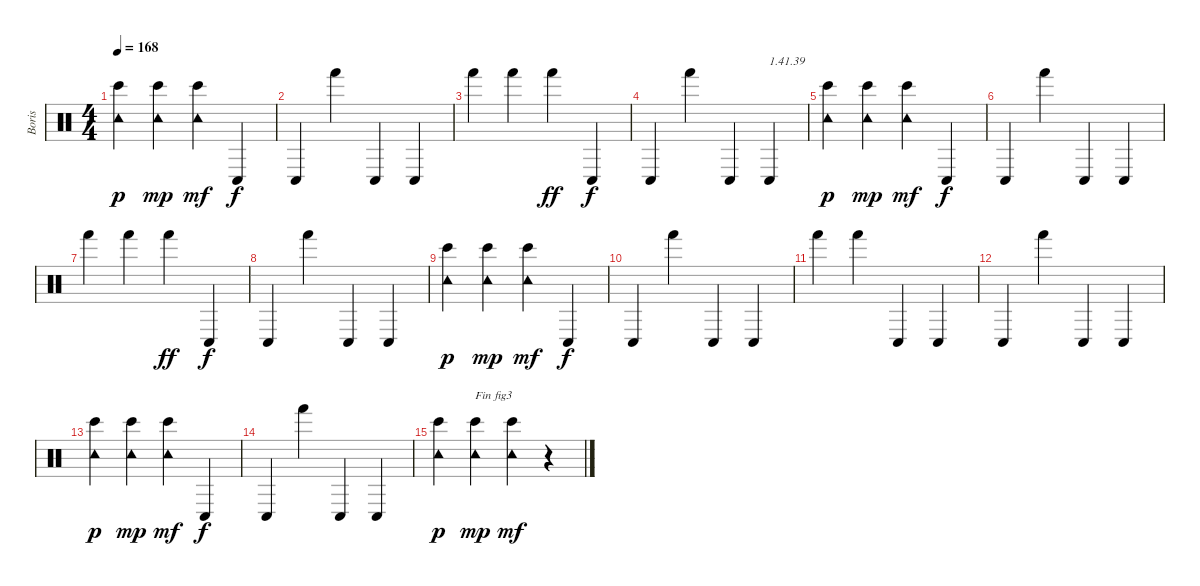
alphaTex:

\track ("Boris" "Boris") {instrument percussion}
\staff {score}
\articulation defaults
\ts (4 4)
\tempo 168
\clef neutral
\ks c
("Tambourine (hit)" "Bongo High (hit)").4{dy p} ("Tambourine (hit)" "Bongo High (hit)").4{dy mp} ("Tambourine (hit)" "Bongo High (hit)").4{dy mf} "Conga low (hit)".4{dy f} |
"Conga low (hit)".4 "Hand (hit)".4 "Conga low (hit)".4 "Conga low (hit)".4 |
"Hand (hit)".4 "Hand (hit)".4 "Hand (hit)".4{dy ff} "Conga low (hit)".4{dy f} |
"Conga low (hit)".4 "Hand (hit)".4 "Conga low (hit)".4 "Conga low (hit)".4{txt "1.41.39"} |
("Tambourine (hit)" "Bongo High (hit)").4{dy p} ("Tambourine (hit)" "Bongo High (hit)").4{dy mp} ("Tambourine (hit)" "Bongo High (hit)").4{dy mf} "Conga low (hit)".4{dy f} |
"Conga low (hit)".4 "Hand (hit)".4 "Conga low (hit)".4 "Conga low (hit)".4 |
"Hand (hit)".4 "Hand (hit)".4 "Hand (hit)".4{dy ff} "Conga low (hit)".4{dy f} |
"Conga low (hit)".4 "Hand (hit)".4 "Conga low (hit)".4 "Conga low (hit)".4 |
("Tambourine (hit)" "Bongo High (hit)").4{dy p} ("Tambourine (hit)" "Bongo High (hit)").4{dy mp} ("Tambourine (hit)" "Bongo High (hit)").4{dy mf} "Conga low (hit)".4{dy f} |
"Conga low (hit)".4 "Hand (hit)".4 "Conga low (hit)".4 "Conga low (hit)".4 |
"Hand (hit)".4 "Hand (hit)".4 "Conga low (hit)".4 "Conga low (hit)".4 |
"Conga low (hit)".4 "Hand (hit)".4 "Conga low (hit)".4 "Conga low (hit)".4 |
("Tambourine (hit)" "Bongo High (hit)").4{dy p} ("Tambourine (hit)" "Bongo High (hit)").4{dy mp} ("Tambourine (hit)" "Bongo High (hit)").4{dy mf} "Conga low (hit)".4{dy f} |
"Conga low (hit)".4 "Hand (hit)".4 "Conga low (hit)".4 "Conga low (hit)".4 |
("Tambourine (hit)" "Bongo High (hit)").4{dy p} ("Tambourine (hit)" "Bongo High (hit)").4{txt "Fin fig3" dy mp} ("Tambourine (hit)" "Bongo High (hit)").4{dy mf} r.4
